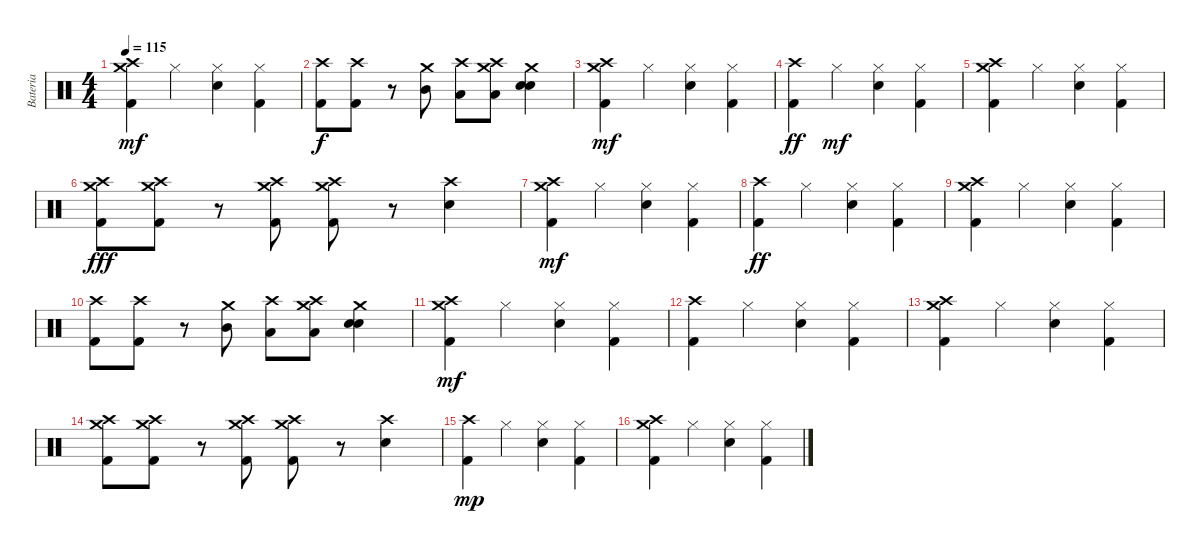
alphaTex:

\track ("Bateria" "Bateria") {instrument percussion}
\staff {score}
\articulation defaults
\ts (4 4)
\tempo 115
\clef neutral
\ks c
("Crash medium (hit)" "Kick (hit) 2" "Crash high (hit)").4{dy mf} "Hi-Hat (closed)".4 ("Hi-Hat (closed)" "Snare (hit) 2").4 ("Hi-Hat (closed)" "Kick (hit) 2").4 |
("Kick (hit) 2" "Crash high (hit)").8{dy f} ("Kick (hit) 2" "Crash high (hit)").8 r.8 ("Mid Tom (hit)" "Crash medium (hit)").8 ("Low Tom (hit)" "Crash high (hit)").8 ("Low Tom (hit)" "Crash high (hit)" "Crash medium (hit)").8 ("Crash medium (hit)" "Snare (hit) 2" "Snare (hit) 2").4 |
("Crash medium (hit)" "Kick (hit) 2" "Crash high (hit)").4{dy mf} "Hi-Hat (closed)".4 ("Hi-Hat (closed)" "Snare (hit) 2").4 ("Hi-Hat (closed)" "Kick (hit) 2").4 |
("Crash high (hit)" "Kick (hit) 2").4{dy ff} "Hi-Hat (closed)".4{dy mf} ("Hi-Hat (closed)" "Snare (hit) 2").4 ("Hi-Hat (closed)" "Kick (hit) 2").4 |
("Crash medium (hit)" "Kick (hit) 2" "Crash high (hit)").4 "Hi-Hat (closed)".4 ("Hi-Hat (closed)" "Snare (hit) 2").4 ("Hi-Hat (closed)" "Kick (hit) 2").4 |
("Crash high (hit)" "Kick (hit) 2" "Crash medium (hit)").8{dy fff} ("Crash high (hit)" "Kick (hit) 2" "Crash medium (hit)").8 r.8 ("Crash high (hit)" "Kick (hit) 2" "Crash medium (hit)").8 ("Crash high (hit)" "Kick (hit) 2" "Crash medium (hit)").8 r.8 ("Crash high (hit)" "Snare (hit) 2").4 |
("Crash medium (hit)" "Kick (hit) 2" "Crash high (hit)").4{dy mf} "Hi-Hat (closed)".4 ("Hi-Hat (closed)" "Snare (hit) 2").4 ("Hi-Hat (closed)" "Kick (hit) 2").4 |
("Crash high (hit)" "Kick (hit) 2").4{dy ff} "Hi-Hat (closed)".4 ("Hi-Hat (closed)" "Snare (hit) 2").4 ("Hi-Hat (closed)" "Kick (hit) 2").4 |
("Crash medium (hit)" "Kick (hit) 2" "Crash high (hit)").4 "Hi-Hat (closed)".4 ("Hi-Hat (closed)" "Snare (hit) 2").4 ("Hi-Hat (closed)" "Kick (hit) 2").4 |
("Kick (hit) 2" "Crash high (hit)").8 ("Kick (hit) 2" "Crash high (hit)").8 r.8 ("Mid Tom (hit)" "Crash medium (hit)").8 ("Low Tom (hit)" "Crash high (hit)").8 ("Low Tom (hit)" "Crash high (hit)" "Crash medium (hit)").8 ("Crash medium (hit)" "Snare (hit) 2" "Snare (hit) 2").4 |
("Crash medium (hit)" "Kick (hit) 2" "Crash high (hit)").4{dy mf} "Hi-Hat (closed)".4 ("Hi-Hat (closed)" "Snare (hit) 2").4 ("Hi-Hat (closed)" "Kick (hit) 2").4 |
("Crash high (hit)" "Kick (hit) 2").4 "Hi-Hat (closed)".4 ("Hi-Hat (closed)" "Snare (hit) 2").4 ("Hi-Hat (closed)" "Kick (hit) 2").4 |
("Crash medium (hit)" "Kick (hit) 2" "Crash high (hit)").4 "Hi-Hat (closed)".4 ("Hi-Hat (closed)" "Snare (hit) 2").4 ("Hi-Hat (closed)" "Kick (hit) 2").4 |
("Crash high (hit)" "Kick (hit) 2" "Crash medium (hit)").8 ("Crash high (hit)" "Kick (hit) 2" "Crash medium (hit)").8 r.8 ("Crash high (hit)" "Kick (hit) 2" "Crash medium (hit)").8 ("Crash high (hit)" "Kick (hit) 2" "Crash medium (hit)").8 r.8 ("Crash high (hit)" "Snare (hit) 2").4 |
("Crash high (hit)" "Kick (hit) 2").4{dy mp} "Hi-Hat (closed)".4 ("Hi-Hat (closed)" "Snare (hit) 2").4 ("Hi-Hat (closed)" "Kick (hit) 2").4 |
("Crash medium (hit)" "Kick (hit) 2" "Crash high (hit)").4 "Hi-Hat (closed)".4 ("Hi-Hat (closed)" "Snare (hit) 2").4 ("Hi-Hat (closed)" "Kick (hit) 2").4
